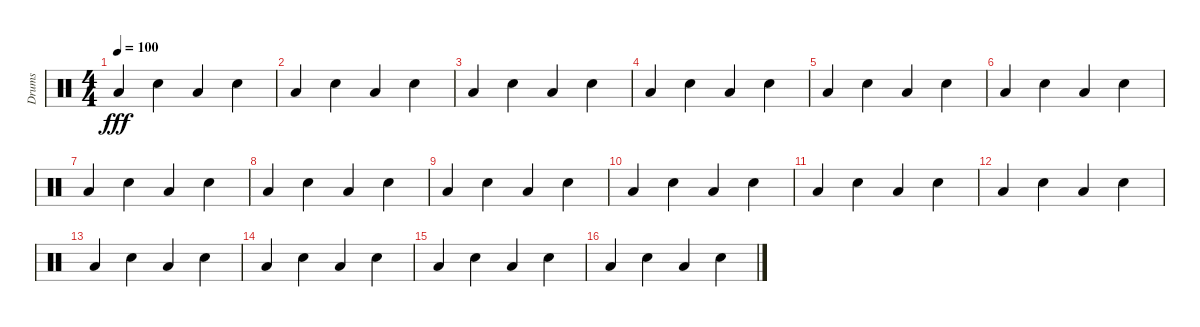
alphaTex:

\track ("Drums" "Drums") {instrument percussion}
\staff {score}
\articulation defaults
\ts (4 4)
\tempo 100
\clef neutral
\ks c "Low Tom (hit)".4{dy fff} "Hand Clap (hit)".4 "Low Tom (hit)".4 "Hand Clap (hit)".4
|
"Low Tom (hit)".4 "Hand Clap (hit)".4 "Low Tom (hit)".4 "Hand Clap (hit)".4 |
"Low Tom (hit)".4 "Hand Clap (hit)".4 "Low Tom (hit)".4 "Hand Clap (hit)".4 |
"Low Tom (hit)".4 "Hand Clap (hit)".4 "Low Tom (hit)".4 "Hand Clap (hit)".4 |
"Low Tom (hit)".4 "Hand Clap (hit)".4 "Low Tom (hit)".4 "Hand Clap (hit)".4 |
"Low Tom (hit)".4 "Hand Clap (hit)".4 "Low Tom (hit)".4 "Hand Clap (hit)".4 |
"Low Tom (hit)".4 "Hand Clap (hit)".4 "Low Tom (hit)".4 "Hand Clap (hit)".4 |
"Low Tom (hit)".4 "Hand Clap (hit)".4 "Low Tom (hit)".4 "Hand Clap (hit)".4 |
"Low Tom (hit)".4 "Hand Clap (hit)".4 "Low Tom (hit)".4 "Hand Clap (hit)".4 |
"Low Tom (hit)".4 "Hand Clap (hit)".4 "Low Tom (hit)".4 "Hand Clap (hit)".4 |
"Low Tom (hit)".4 "Hand Clap (hit)".4 "Low Tom (hit)".4 "Hand Clap (hit)".4 |
"Low Tom (hit)".4 "Hand Clap (hit)".4 "Low Tom (hit)".4 "Hand Clap (hit)".4 |
"Low Tom (hit)".4 "Hand Clap (hit)".4 "Low Tom (hit)".4 "Hand Clap (hit)".4 |
"Low Tom (hit)".4 "Hand Clap (hit)".4 "Low Tom (hit)".4 "Hand Clap (hit)".4 |
"Low Tom (hit)".4 "Hand Clap (hit)".4 "Low Tom (hit)".4 "Hand Clap (hit)".4 |
"Low Tom (hit)".4 "Hand Clap (hit)".4 "Low Tom (hit)".4 "Hand Clap (hit)".4
